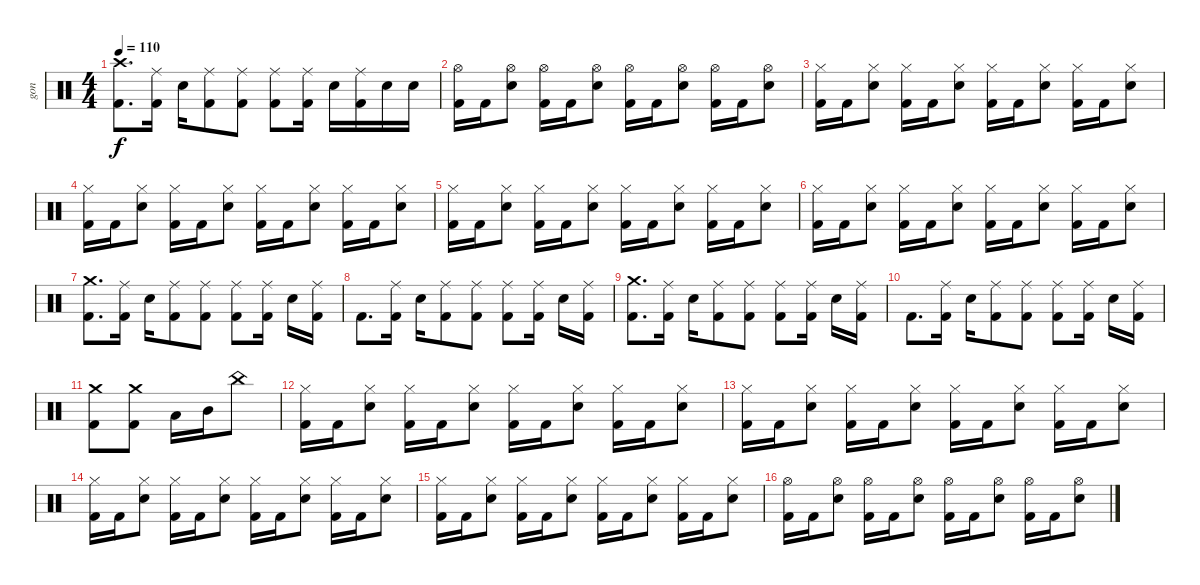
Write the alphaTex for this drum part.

\track ("gon" "gon") {instrument percussion}
\staff {score}
\articulation defaults
\ts (4 4)
\tempo 110
\clef neutral
\ks c
("Crash high (hit)" "Kick (hit) 2").8{d dy f} ("Ride (middle)" "Kick (hit) 2").16 "Snare (hit) 2".16 ("Ride (middle)" "Kick (hit) 2").8 ("Ride (middle)" "Kick (hit) 2").8 ("Ride (middle)" "Kick (hit) 2").8 ("Ride (middle)" "Kick (hit) 2").16 "Snare (hit) 2".16 ("Ride (middle)" "Kick (hit) 2").16 "Electric Snare (hit)".16 "Electric Snare (hit)".16 |
("Hi-Hat (open)" "Kick (hit) 2").16 "Kick (hit) 2".16 ("Hi-Hat (open)" "Electric Snare (hit)").8 ("Hi-Hat (open)" "Kick (hit) 2").16 "Kick (hit) 2".16 ("Hi-Hat (open)" "Electric Snare (hit)").8 ("Hi-Hat (open)" "Kick (hit) 2").16 "Kick (hit) 2".16 ("Hi-Hat (open)" "Electric Snare (hit)").8 ("Hi-Hat (open)" "Kick (hit) 2").16 "Kick (hit) 2".16 ("Hi-Hat (open)" "Electric Snare (hit)").8 |
("Hi-Hat (closed)" "Kick (hit) 2").16 "Kick (hit) 2".16 ("Hi-Hat (closed)" "Electric Snare (hit)").8 ("Hi-Hat (closed)" "Kick (hit) 2").16 "Kick (hit) 2".16 ("Hi-Hat (closed)" "Electric Snare (hit)").8 ("Hi-Hat (closed)" "Kick (hit) 2").16 "Kick (hit) 2".16 ("Hi-Hat (closed)" "Electric Snare (hit)").8 ("Hi-Hat (closed)" "Kick (hit) 2").16 "Kick (hit) 2".16 ("Hi-Hat (closed)" "Electric Snare (hit)").8 |
("Hi-Hat (closed)" "Kick (hit) 2").16 "Kick (hit) 2".16 ("Hi-Hat (closed)" "Electric Snare (hit)").8 ("Hi-Hat (closed)" "Kick (hit) 2").16 "Kick (hit) 2".16 ("Hi-Hat (closed)" "Electric Snare (hit)").8 ("Hi-Hat (closed)" "Kick (hit) 2").16 "Kick (hit) 2".16 ("Hi-Hat (closed)" "Electric Snare (hit)").8 ("Hi-Hat (closed)" "Kick (hit) 2").16 "Kick (hit) 2".16 ("Hi-Hat (closed)" "Electric Snare (hit)").8 |
("Hi-Hat (closed)" "Kick (hit) 2").16 "Kick (hit) 2".16 ("Hi-Hat (closed)" "Electric Snare (hit)").8 ("Hi-Hat (closed)" "Kick (hit) 2").16 "Kick (hit) 2".16 ("Hi-Hat (closed)" "Electric Snare (hit)").8 ("Hi-Hat (closed)" "Kick (hit) 2").16 "Kick (hit) 2".16 ("Hi-Hat (closed)" "Electric Snare (hit)").8 ("Hi-Hat (closed)" "Kick (hit) 2").16 "Kick (hit) 2".16 ("Hi-Hat (closed)" "Electric Snare (hit)").8 |
("Hi-Hat (closed)" "Kick (hit) 2").16 "Kick (hit) 2".16 ("Hi-Hat (closed)" "Electric Snare (hit)").8 ("Hi-Hat (closed)" "Kick (hit) 2").16 "Kick (hit) 2".16 ("Hi-Hat (closed)" "Electric Snare (hit)").8 ("Hi-Hat (closed)" "Kick (hit) 2").16 "Kick (hit) 2".16 ("Hi-Hat (closed)" "Electric Snare (hit)").8 ("Hi-Hat (closed)" "Kick (hit) 2").16 "Kick (hit) 2".16 ("Hi-Hat (closed)" "Electric Snare (hit)").8 |
("Crash medium (hit)" "Kick (hit) 2").8{d} ("Ride (middle)" "Kick (hit) 2").16 "Snare (hit) 2".16 ("Ride (middle)" "Kick (hit) 2").8 ("Ride (middle)" "Kick (hit) 2").8 ("Ride (middle)" "Kick (hit) 2").8 ("Ride (middle)" "Kick (hit) 2").16 "Snare (hit) 2".16 ("Ride (middle)" "Kick (hit) 2").16 |
"Kick (hit) 2".8{d} ("Ride (middle)" "Kick (hit) 2").16 "Snare (hit) 2".16 ("Ride (middle)" "Kick (hit) 2").8 ("Ride (middle)" "Kick (hit) 2").8 ("Ride (middle)" "Kick (hit) 2").8 ("Ride (middle)" "Kick (hit) 2").16 "Snare (hit) 2".16 ("Ride (middle)" "Kick (hit) 2").16 |
("Crash medium (hit)" "Kick (hit) 2").8{d} ("Ride (middle)" "Kick (hit) 2").16 "Snare (hit) 2".16 ("Ride (middle)" "Kick (hit) 2").8 ("Ride (middle)" "Kick (hit) 2").8 ("Ride (middle)" "Kick (hit) 2").8 ("Ride (middle)" "Kick (hit) 2").16 "Snare (hit) 2".16 ("Ride (middle)" "Kick (hit) 2").16 |
"Kick (hit) 2".8{d} ("Ride (middle)" "Kick (hit) 2").16 "Snare (hit) 2".16 ("Ride (middle)" "Kick (hit) 2").8 ("Ride (middle)" "Kick (hit) 2").8 ("Ride (middle)" "Kick (hit) 2").8 ("Ride (middle)" "Kick (hit) 2").16 "Snare (hit) 2".16 ("Ride (middle)" "Kick (hit) 2").16 |
("Crash medium (hit)" "Kick (hit) 2").8 ("Crash medium (hit)" "Kick (hit) 2").8 "Low Tom (hit)".16 "Mid Tom (hit)".16 "China (hit)".8 |
("Hi-Hat (closed)" "Kick (hit) 2").16 "Kick (hit) 2".16 ("Hi-Hat (closed)" "Electric Snare (hit)").8 ("Hi-Hat (closed)" "Kick (hit) 2").16 "Kick (hit) 2".16 ("Hi-Hat (closed)" "Electric Snare (hit)").8 ("Hi-Hat (closed)" "Kick (hit) 2").16 "Kick (hit) 2".16 ("Hi-Hat (closed)" "Electric Snare (hit)").8 ("Hi-Hat (closed)" "Kick (hit) 2").16 "Kick (hit) 2".16 ("Hi-Hat (closed)" "Electric Snare (hit)").8 |
("Hi-Hat (closed)" "Kick (hit) 2").16 "Kick (hit) 2".16 ("Hi-Hat (closed)" "Electric Snare (hit)").8 ("Hi-Hat (closed)" "Kick (hit) 2").16 "Kick (hit) 2".16 ("Hi-Hat (closed)" "Electric Snare (hit)").8 ("Hi-Hat (closed)" "Kick (hit) 2").16 "Kick (hit) 2".16 ("Hi-Hat (closed)" "Electric Snare (hit)").8 ("Hi-Hat (closed)" "Kick (hit) 2").16 "Kick (hit) 2".16 ("Hi-Hat (closed)" "Electric Snare (hit)").8 |
("Hi-Hat (closed)" "Kick (hit) 2").16 "Kick (hit) 2".16 ("Hi-Hat (closed)" "Electric Snare (hit)").8 ("Hi-Hat (closed)" "Kick (hit) 2").16 "Kick (hit) 2".16 ("Hi-Hat (closed)" "Electric Snare (hit)").8 ("Hi-Hat (closed)" "Kick (hit) 2").16 "Kick (hit) 2".16 ("Hi-Hat (closed)" "Electric Snare (hit)").8 ("Hi-Hat (closed)" "Kick (hit) 2").16 "Kick (hit) 2".16 ("Hi-Hat (closed)" "Electric Snare (hit)").8 |
("Hi-Hat (closed)" "Kick (hit) 2").16 "Kick (hit) 2".16 ("Hi-Hat (closed)" "Electric Snare (hit)").8 ("Hi-Hat (closed)" "Kick (hit) 2").16 "Kick (hit) 2".16 ("Hi-Hat (closed)" "Electric Snare (hit)").8 ("Hi-Hat (closed)" "Kick (hit) 2").16 "Kick (hit) 2".16 ("Hi-Hat (closed)" "Electric Snare (hit)").8 ("Hi-Hat (closed)" "Kick (hit) 2").16 "Kick (hit) 2".16 ("Hi-Hat (closed)" "Electric Snare (hit)").8 |
("Hi-Hat (open)" "Kick (hit) 2").16 "Kick (hit) 2".16 ("Hi-Hat (open)" "Electric Snare (hit)").8 ("Hi-Hat (open)" "Kick (hit) 2").16 "Kick (hit) 2".16 ("Hi-Hat (open)" "Electric Snare (hit)").8 ("Hi-Hat (open)" "Kick (hit) 2").16 "Kick (hit) 2".16 ("Hi-Hat (open)" "Electric Snare (hit)").8 ("Hi-Hat (open)" "Kick (hit) 2").16 "Kick (hit) 2".16 ("Hi-Hat (open)" "Electric Snare (hit)").8
